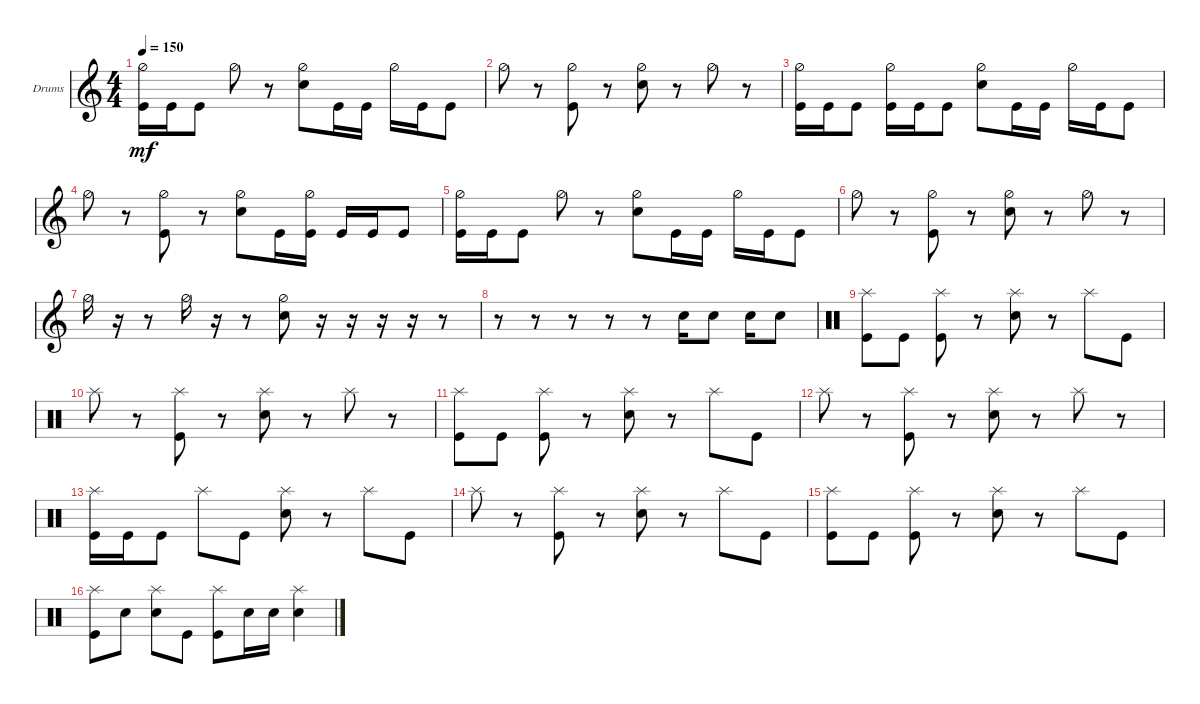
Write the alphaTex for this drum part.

\bracketExtendMode groupsimilarinstruments
\firstSystemTrackNameOrientation horizontal
\otherSystemsTrackNameOrientation horizontal
\track ("Drumkit" "Drums") {instrument percussion}
\staff {score}
\articulation defaults
\ts (4 4)
\tempo 150
\clef g2
\ks c
("Kick (hit)" "Hi-Hat (half)").16{dy mf} "Kick (hit)".16 "Kick (hit)".8 "Hi-Hat (half)".8 r.8 ("Snare (hit) 2" "Hi-Hat (half)").8 "Kick (hit)".16 "Kick (hit)".16 "Hi-Hat (half)".16 "Kick (hit)".16 "Kick (hit)".8 |
"Hi-Hat (half)".8 r.8 ("Kick (hit)" "Hi-Hat (half)").8 r.8 ("Snare (hit) 2" "Hi-Hat (half)").8 r.8 "Hi-Hat (half)".8 r.8 |
("Kick (hit)" "Hi-Hat (half)").16 "Kick (hit)".16 "Kick (hit)".8 ("Kick (hit)" "Hi-Hat (half)").16 "Kick (hit)".16 "Kick (hit)".8 ("Snare (hit) 2" "Hi-Hat (half)").8 "Kick (hit)".16 "Kick (hit)".16 "Hi-Hat (half)".16 "Kick (hit)".16 "Kick (hit)".8 |
"Hi-Hat (half)".8 r.8 ("Kick (hit)" "Hi-Hat (half)").8 r.8 ("Snare (hit) 2" "Hi-Hat (half)").8 "Kick (hit)".16 ("Kick (hit)" "Hi-Hat (half)").16 "Kick (hit)".16 "Kick (hit)".16 "Kick (hit)".8 |
("Kick (hit)" "Hi-Hat (half)").16 "Kick (hit)".16 "Kick (hit)".8 "Hi-Hat (half)".8 r.8 ("Snare (hit) 2" "Hi-Hat (half)").8 "Kick (hit)".16 "Kick (hit)".16 "Hi-Hat (half)".16 "Kick (hit)".16 "Kick (hit)".8 |
"Hi-Hat (half)".8 r.8 ("Kick (hit)" "Hi-Hat (half)").8 r.8 ("Snare (hit) 2" "Hi-Hat (half)").8 r.8 "Hi-Hat (half)".8 r.8 |
"Hi-Hat (half)".16 r.16 r.8 "Hi-Hat (half)".16 r.16 r.8 ("Snare (hit) 2" "Hi-Hat (half)").8 r.16 r.16 r.16 r.16 r.8 |
r.8 r.8 r.8 r.8 r.8 "Snare (hit) 2".16 "Snare (hit) 2".8 "Snare (hit) 2".16 "Snare (hit) 2".8 |
\clef neutral
("Kick (hit)" "Splash (hit)").8 "Kick (hit)".8 ("Kick (hit)" "Splash (hit)").8 r.8 ("Snare (hit) 2" "Splash (hit)").8 r.8 "Splash (hit)".8 "Kick (hit)".8 |
"Splash (hit)".8 r.8 ("Kick (hit)" "Splash (hit)").8 r.8 ("Snare (hit) 2" "Splash (hit)").8 r.8 "Splash (hit)".8 r.8 |
("Kick (hit)" "Splash (hit)").8 "Kick (hit)".8 ("Kick (hit)" "Splash (hit)").8 r.8 ("Snare (hit) 2" "Splash (hit)").8 r.8 "Splash (hit)".8 "Kick (hit)".8 |
"Splash (hit)".8 r.8 ("Kick (hit)" "Splash (hit)").8 r.8 ("Snare (hit) 2" "Splash (hit)").8 r.8 "Splash (hit)".8 r.8 |
("Kick (hit)" "Splash (hit)").16 "Kick (hit)".16 "Kick (hit)".8 "Splash (hit)".8 "Kick (hit)".8 ("Snare (hit) 2" "Splash (hit)").8 r.8 "Splash (hit)".8 "Kick (hit)".8 |
"Splash (hit)".8 r.8 ("Kick (hit)" "Splash (hit)").8 r.8 ("Snare (hit) 2" "Splash (hit)").8 r.8 "Splash (hit)".8 "Kick (hit)".8 |
("Kick (hit)" "Splash (hit)").8 "Kick (hit)".8 ("Kick (hit)" "Splash (hit)").8 r.8 ("Snare (hit) 2" "Splash (hit)").8 r.8 "Splash (hit)".8 "Kick (hit)".8 |
("Splash (hit)" "Kick (hit)").8 "Snare (hit) 2".8 ("Splash (hit)" "Snare (hit) 2").8 "Kick (hit)".8 ("Splash (hit)" "Kick (hit)").8 "Snare (hit) 2".16 "Snare (hit) 2".16 ("Snare (hit) 2" "Splash (hit)").4
